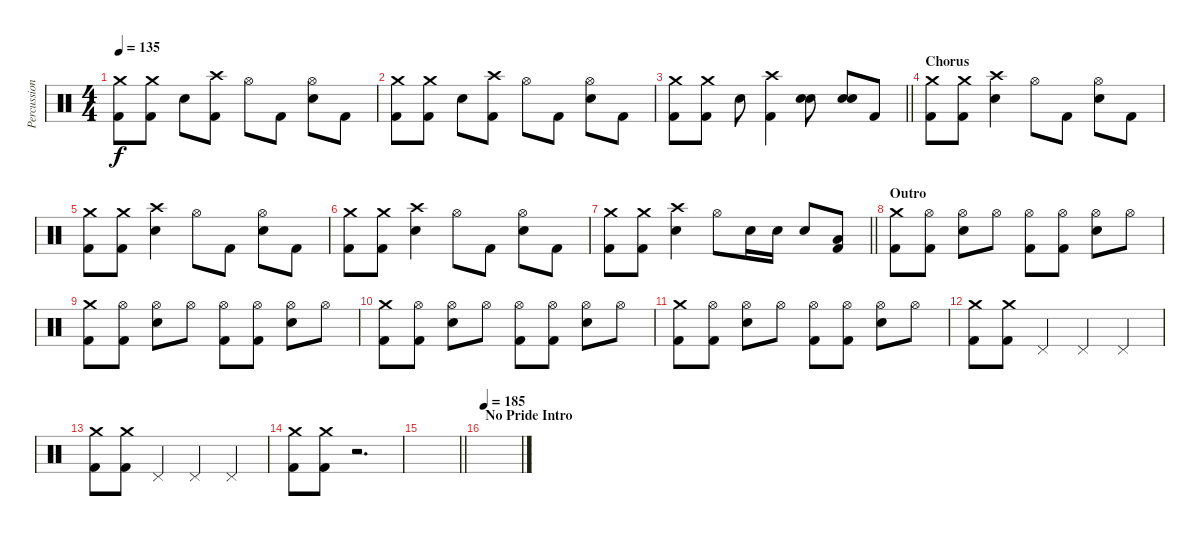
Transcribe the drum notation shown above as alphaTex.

\track ("Percussion" "Percussion") {instrument percussion}
\staff {score}
\articulation defaults
\ts (4 4)
\tempo 135
\clef neutral
\ks c
("Crash medium (hit)" "Kick (hit) 2").8{dy f} ("Crash medium (hit)" "Kick (hit) 2").8 "Electric Snare (hit)".8 ("Crash high (hit)" "Kick (hit) 2").8 "Hi-Hat (open)".8 "Kick (hit) 2".8 ("Hi-Hat (open)" "Electric Snare (hit)").8 "Kick (hit) 2".8 |
("Crash medium (hit)" "Kick (hit) 2").8 ("Crash medium (hit)" "Kick (hit) 2").8 "Electric Snare (hit)".8 ("Crash high (hit)" "Kick (hit) 2").8 "Hi-Hat (open)".8 "Kick (hit) 2".8 ("Hi-Hat (open)" "Electric Snare (hit)").8 "Kick (hit) 2".8 |
\barLineRight lightlight
("Crash medium (hit)" "Kick (hit) 2").8 ("Crash medium (hit)" "Kick (hit) 2").8 "Electric Snare (hit)".8 ("Crash high (hit)" "Kick (hit) 2").4 ("Electric Snare (hit)" "Electric Snare (hit)").8 ("Electric Snare (hit)" "Electric Snare (hit)").8 "Kick (hit) 2".8 |
\section ("" "Chorus")
("Crash medium (hit)" "Kick (hit) 2").8 ("Crash medium (hit)" "Kick (hit) 2").8 ("Crash high (hit)" "Electric Snare (hit)").4 "Hi-Hat (open)".8 "Kick (hit) 2".8 ("Hi-Hat (open)" "Electric Snare (hit)").8 "Kick (hit) 2".8 |
("Crash medium (hit)" "Kick (hit) 2").8 ("Crash medium (hit)" "Kick (hit) 2").8 ("Crash high (hit)" "Electric Snare (hit)").4 "Hi-Hat (open)".8 "Kick (hit) 2".8 ("Hi-Hat (open)" "Electric Snare (hit)").8 "Kick (hit) 2".8 |
("Crash medium (hit)" "Kick (hit) 2").8 ("Crash medium (hit)" "Kick (hit) 2").8 ("Crash high (hit)" "Electric Snare (hit)").4 "Hi-Hat (open)".8 "Kick (hit) 2".8 ("Hi-Hat (open)" "Electric Snare (hit)").8 "Kick (hit) 2".8 |
\barLineRight lightlight
("Crash medium (hit)" "Kick (hit) 2").8 ("Crash medium (hit)" "Kick (hit) 2").8 ("Crash high (hit)" "Electric Snare (hit)").4 "Hi-Hat (open)".8 "Electric Snare (hit)".16 "Electric Snare (hit)".16 "Electric Snare (hit)".8 ("Low Floor Tom (hit)" "Kick (hit) 2").8 |
\section ("" "Outro")
("Crash medium (hit)" "Kick (hit) 2").8 ("Hi-Hat (open)" "Kick (hit) 2").8 ("Hi-Hat (open)" "Electric Snare (hit)").8 "Hi-Hat (open)".8 ("Hi-Hat (open)" "Kick (hit) 2").8 ("Hi-Hat (open)" "Kick (hit) 2").8 ("Hi-Hat (open)" "Electric Snare (hit)").8 "Hi-Hat (open)".8 |
("Crash medium (hit)" "Kick (hit) 2").8 ("Hi-Hat (open)" "Kick (hit) 2").8 ("Hi-Hat (open)" "Electric Snare (hit)").8 "Hi-Hat (open)".8 ("Hi-Hat (open)" "Kick (hit) 2").8 ("Hi-Hat (open)" "Kick (hit) 2").8 ("Hi-Hat (open)" "Electric Snare (hit)").8 "Hi-Hat (open)".8 |
("Crash medium (hit)" "Kick (hit) 2").8 ("Hi-Hat (open)" "Kick (hit) 2").8 ("Hi-Hat (open)" "Electric Snare (hit)").8 "Hi-Hat (open)".8 ("Hi-Hat (open)" "Kick (hit) 2").8 ("Hi-Hat (open)" "Kick (hit) 2").8 ("Hi-Hat (open)" "Electric Snare (hit)").8 "Hi-Hat (open)".8 |
("Crash medium (hit)" "Kick (hit) 2").8 ("Hi-Hat (open)" "Kick (hit) 2").8 ("Hi-Hat (open)" "Electric Snare (hit)").8 "Hi-Hat (open)".8 ("Hi-Hat (open)" "Kick (hit) 2").8 ("Hi-Hat (open)" "Kick (hit) 2").8 ("Hi-Hat (open)" "Electric Snare (hit)").8 "Hi-Hat (open)".8 |
("Crash medium (hit)" "Kick (hit) 2").8 ("Crash medium (hit)" "Kick (hit) 2").8 "Pedal Hi-Hat (hit)".4 "Pedal Hi-Hat (hit)".4 "Pedal Hi-Hat (hit)".4 |
("Crash medium (hit)" "Kick (hit) 2").8 ("Crash medium (hit)" "Kick (hit) 2").8 "Pedal Hi-Hat (hit)".4 "Pedal Hi-Hat (hit)".4 "Pedal Hi-Hat (hit)".4 |
("Crash medium (hit)" "Kick (hit) 2").8 ("Crash medium (hit)" "Kick (hit) 2").8 r.2{d} |
\barLineRight lightlight
|
\section ("" "No Pride Intro")
\tempo 185
